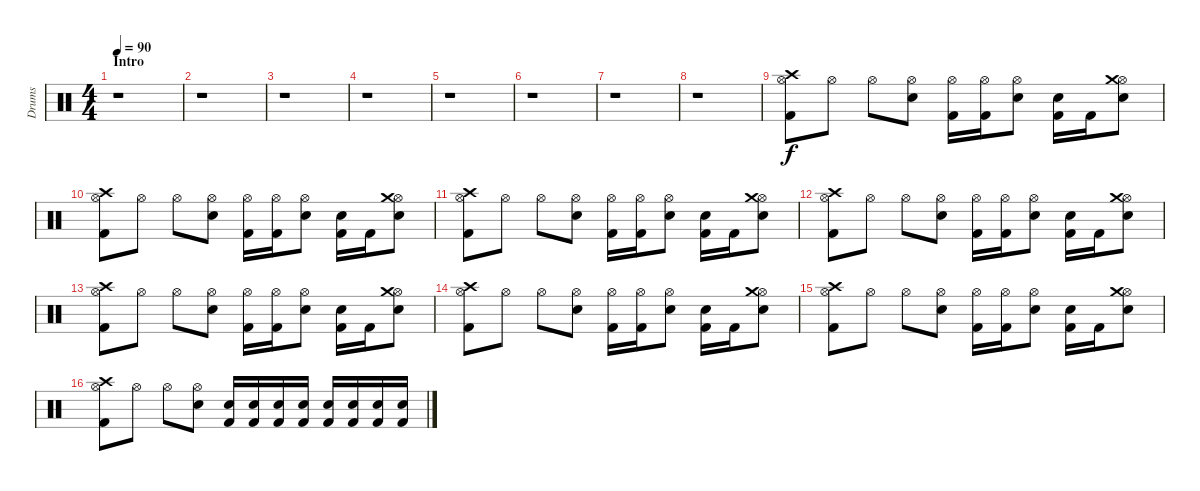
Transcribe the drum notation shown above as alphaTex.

\track ("Drums" "Drums") {instrument percussion}
\staff {score}
\articulation defaults
\ts (4 4)
\section ("" "Intro")
\tempo 90
\clef neutral
\ks c
r.1{dy f} |
r.1 |
r.1 |
r.1 |
r.1 |
r.1 |
r.1 |
r.1 |
("Hi-Hat (open)" "Kick (hit) 2" "Crash high (hit)").8 "Hi-Hat (open)".8 "Hi-Hat (open)".8 ("Hi-Hat (open)" "Electric Snare (hit)").8 ("Hi-Hat (open)" "Kick (hit) 2").16 ("Hi-Hat (open)" "Kick (hit) 2").16 ("Electric Snare (hit)" "Hi-Hat (open)").8 ("Electric Snare (hit)" "Kick (hit) 2").16 "Kick (hit) 2".16 ("Electric Snare (hit)" "Hi-Hat (open)" "Crash medium (hit)").8 |
("Hi-Hat (open)" "Kick (hit) 2" "Crash high (hit)").8 "Hi-Hat (open)".8 "Hi-Hat (open)".8 ("Hi-Hat (open)" "Electric Snare (hit)").8 ("Hi-Hat (open)" "Kick (hit) 2").16 ("Hi-Hat (open)" "Kick (hit) 2").16 ("Electric Snare (hit)" "Hi-Hat (open)").8 ("Electric Snare (hit)" "Kick (hit) 2").16 "Kick (hit) 2".16 ("Electric Snare (hit)" "Hi-Hat (open)" "Crash medium (hit)").8 |
("Hi-Hat (open)" "Kick (hit) 2" "Crash high (hit)").8 "Hi-Hat (open)".8 "Hi-Hat (open)".8 ("Hi-Hat (open)" "Electric Snare (hit)").8 ("Hi-Hat (open)" "Kick (hit) 2").16 ("Hi-Hat (open)" "Kick (hit) 2").16 ("Electric Snare (hit)" "Hi-Hat (open)").8 ("Electric Snare (hit)" "Kick (hit) 2").16 "Kick (hit) 2".16 ("Electric Snare (hit)" "Hi-Hat (open)" "Crash medium (hit)").8 |
("Hi-Hat (open)" "Kick (hit) 2" "Crash high (hit)").8 "Hi-Hat (open)".8 "Hi-Hat (open)".8 ("Hi-Hat (open)" "Electric Snare (hit)").8 ("Hi-Hat (open)" "Kick (hit) 2").16 ("Hi-Hat (open)" "Kick (hit) 2").16 ("Electric Snare (hit)" "Hi-Hat (open)").8 ("Electric Snare (hit)" "Kick (hit) 2").16 "Kick (hit) 2".16 ("Electric Snare (hit)" "Hi-Hat (open)" "Crash medium (hit)").8 |
("Hi-Hat (open)" "Kick (hit) 2" "Crash high (hit)").8 "Hi-Hat (open)".8 "Hi-Hat (open)".8 ("Hi-Hat (open)" "Electric Snare (hit)").8 ("Hi-Hat (open)" "Kick (hit) 2").16 ("Hi-Hat (open)" "Kick (hit) 2").16 ("Electric Snare (hit)" "Hi-Hat (open)").8 ("Electric Snare (hit)" "Kick (hit) 2").16 "Kick (hit) 2".16 ("Electric Snare (hit)" "Hi-Hat (open)" "Crash medium (hit)").8 |
("Hi-Hat (open)" "Kick (hit) 2" "Crash high (hit)").8 "Hi-Hat (open)".8 "Hi-Hat (open)".8 ("Hi-Hat (open)" "Electric Snare (hit)").8 ("Hi-Hat (open)" "Kick (hit) 2").16 ("Hi-Hat (open)" "Kick (hit) 2").16 ("Electric Snare (hit)" "Hi-Hat (open)").8 ("Electric Snare (hit)" "Kick (hit) 2").16 "Kick (hit) 2".16 ("Electric Snare (hit)" "Hi-Hat (open)" "Crash medium (hit)").8 |
("Hi-Hat (open)" "Kick (hit) 2" "Crash high (hit)").8 "Hi-Hat (open)".8 "Hi-Hat (open)".8 ("Hi-Hat (open)" "Electric Snare (hit)").8 ("Hi-Hat (open)" "Kick (hit) 2").16 ("Hi-Hat (open)" "Kick (hit) 2").16 ("Electric Snare (hit)" "Hi-Hat (open)").8 ("Electric Snare (hit)" "Kick (hit) 2").16 "Kick (hit) 2".16 ("Electric Snare (hit)" "Hi-Hat (open)" "Crash medium (hit)").8 |
("Hi-Hat (open)" "Kick (hit) 2" "Crash high (hit)").8 "Hi-Hat (open)".8 "Hi-Hat (open)".8 ("Hi-Hat (open)" "Electric Snare (hit)").8 ("Electric Snare (hit)" "Kick (hit) 2").16 ("Electric Snare (hit)" "Kick (hit) 2").16 ("Electric Snare (hit)" "Kick (hit) 2").16 ("Electric Snare (hit)" "Kick (hit) 2").16 ("Kick (hit) 2" "Electric Snare (hit)").16 ("Kick (hit) 2" "Electric Snare (hit)").16 ("Kick (hit) 2" "Electric Snare (hit)").16 ("Kick (hit) 2" "Electric Snare (hit)").16
